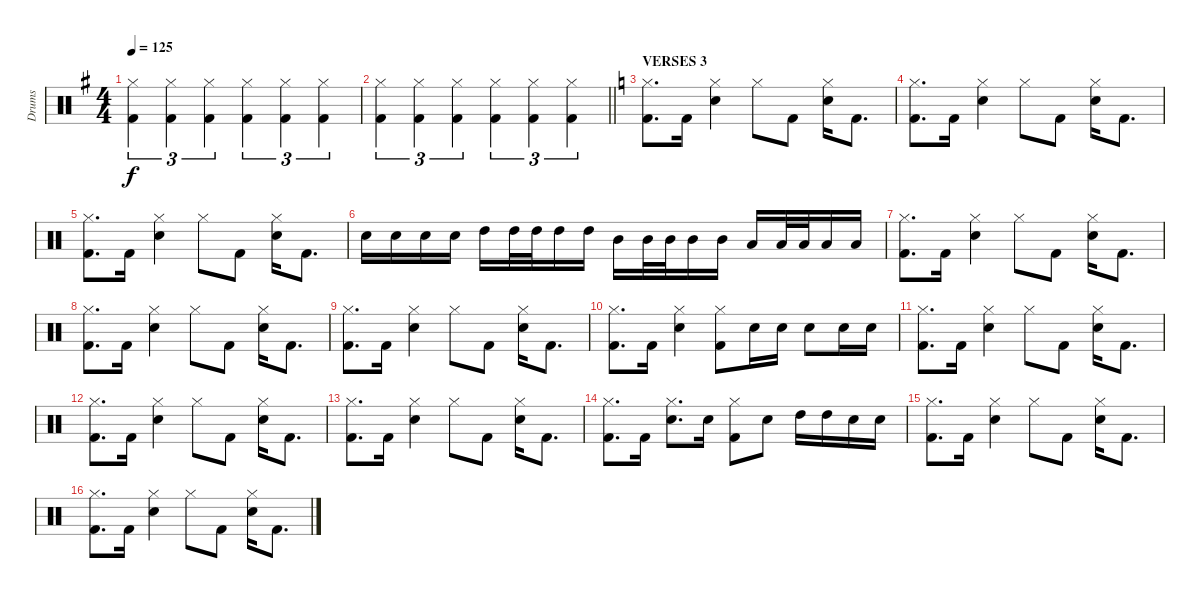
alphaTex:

\track ("Drums" "Drums") {instrument percussion}
\staff {score}
\articulation defaults
\ts (4 4)
\tempo 125
\clef neutral
\ks eminor
("Hi-Hat (closed)" "Kick (hit) 2").4{tu (3 2) dy f} ("Hi-Hat (closed)" "Kick (hit) 2").4{tu (3 2)} ("Hi-Hat (closed)" "Kick (hit) 2").4{tu (3 2)} ("Hi-Hat (closed)" "Kick (hit) 2").4{tu (3 2)} ("Hi-Hat (closed)" "Kick (hit) 2").4{tu (3 2)} ("Hi-Hat (closed)" "Kick (hit) 2").4{tu (3 2)} |
\barLineRight lightlight
("Hi-Hat (closed)" "Kick (hit) 2").4{tu (3 2)} ("Hi-Hat (closed)" "Kick (hit) 2").4{tu (3 2)} ("Hi-Hat (closed)" "Kick (hit) 2").4{tu (3 2)} ("Hi-Hat (closed)" "Kick (hit) 2").4{tu (3 2)} ("Hi-Hat (closed)" "Kick (hit) 2").4{tu (3 2)} ("Hi-Hat (closed)" "Kick (hit) 2").4{tu (3 2)} |
\section ("" "VERSES 3")
\ks aminor
("Hi-Hat (closed)" "Kick (hit) 2").8{d} "Kick (hit) 2".16 ("Hi-Hat (closed)" "Electric Snare (hit)").4 "Hi-Hat (closed)".8 "Kick (hit) 2".8 ("Hi-Hat (closed)" "Electric Snare (hit)").16 "Kick (hit) 2".8{d} |
("Hi-Hat (closed)" "Kick (hit) 2").8{d} "Kick (hit) 2".16 ("Hi-Hat (closed)" "Electric Snare (hit)").4 "Hi-Hat (closed)".8 "Kick (hit) 2".8 ("Hi-Hat (closed)" "Electric Snare (hit)").16 "Kick (hit) 2".8{d} |
("Hi-Hat (closed)" "Kick (hit) 2").8{d} "Kick (hit) 2".16 ("Hi-Hat (closed)" "Electric Snare (hit)").4 "Hi-Hat (closed)".8 "Kick (hit) 2".8 ("Hi-Hat (closed)" "Electric Snare (hit)").16 "Kick (hit) 2".8{d} |
"Electric Snare (hit)".16 "Electric Snare (hit)".16 "Electric Snare (hit)".16 "Electric Snare (hit)".16 "High Tom (hit)".16 "High Tom (hit)".32 "High Tom (hit)".32{beam splitsecondary} "High Tom (hit)".16 "High Tom (hit)".16 "Mid Tom (hit)".16 "Mid Tom (hit)".32 "Mid Tom (hit)".32{beam splitsecondary} "Mid Tom (hit)".16 "Mid Tom (hit)".16 "Low Tom (hit)".16 "Low Tom (hit)".32 "Low Tom (hit)".32{beam splitsecondary} "Low Tom (hit)".16 "Low Tom (hit)".16 |
("Hi-Hat (closed)" "Kick (hit) 2").8{d} "Kick (hit) 2".16 ("Hi-Hat (closed)" "Electric Snare (hit)").4 "Hi-Hat (closed)".8 "Kick (hit) 2".8 ("Hi-Hat (closed)" "Electric Snare (hit)").16 "Kick (hit) 2".8{d} |
("Hi-Hat (closed)" "Kick (hit) 2").8{d} "Kick (hit) 2".16 ("Hi-Hat (closed)" "Electric Snare (hit)").4 "Hi-Hat (closed)".8 "Kick (hit) 2".8 ("Hi-Hat (closed)" "Electric Snare (hit)").16 "Kick (hit) 2".8{d} |
("Hi-Hat (closed)" "Kick (hit) 2").8{d} "Kick (hit) 2".16 ("Hi-Hat (closed)" "Electric Snare (hit)").4 "Hi-Hat (closed)".8 "Kick (hit) 2".8 ("Hi-Hat (closed)" "Electric Snare (hit)").16 "Kick (hit) 2".8{d} |
("Hi-Hat (closed)" "Kick (hit) 2").8{d} "Kick (hit) 2".16 ("Hi-Hat (closed)" "Electric Snare (hit)").4 ("Hi-Hat (closed)" "Kick (hit) 2").8 "Electric Snare (hit)".16 "Electric Snare (hit)".16 "Electric Snare (hit)".8 "Electric Snare (hit)".16 "Electric Snare (hit)".16 |
("Hi-Hat (closed)" "Kick (hit) 2").8{d} "Kick (hit) 2".16 ("Hi-Hat (closed)" "Electric Snare (hit)").4 "Hi-Hat (closed)".8 "Kick (hit) 2".8 ("Hi-Hat (closed)" "Electric Snare (hit)").16 "Kick (hit) 2".8{d} |
("Hi-Hat (closed)" "Kick (hit) 2").8{d} "Kick (hit) 2".16 ("Hi-Hat (closed)" "Electric Snare (hit)").4 "Hi-Hat (closed)".8 "Kick (hit) 2".8 ("Hi-Hat (closed)" "Electric Snare (hit)").16 "Kick (hit) 2".8{d} |
("Hi-Hat (closed)" "Kick (hit) 2").8{d} "Kick (hit) 2".16 ("Hi-Hat (closed)" "Electric Snare (hit)").4 "Hi-Hat (closed)".8 "Kick (hit) 2".8 ("Hi-Hat (closed)" "Electric Snare (hit)").16 "Kick (hit) 2".8{d} |
("Hi-Hat (closed)" "Kick (hit) 2").8{d} "Kick (hit) 2".16 ("Hi-Hat (closed)" "Electric Snare (hit)").8{d} "Electric Snare (hit)".16 ("Hi-Hat (closed)" "Kick (hit) 2").8 "Electric Snare (hit)".8 "High Tom (hit)".16 "High Tom (hit)".16 "Electric Snare (hit)".16 "Electric Snare (hit)".16 |
("Hi-Hat (closed)" "Kick (hit) 2").8{d} "Kick (hit) 2".16 ("Hi-Hat (closed)" "Electric Snare (hit)").4 "Hi-Hat (closed)".8 "Kick (hit) 2".8 ("Hi-Hat (closed)" "Electric Snare (hit)").16 "Kick (hit) 2".8{d} |
("Hi-Hat (closed)" "Kick (hit) 2").8{d} "Kick (hit) 2".16 ("Hi-Hat (closed)" "Electric Snare (hit)").4 "Hi-Hat (closed)".8 "Kick (hit) 2".8 ("Hi-Hat (closed)" "Electric Snare (hit)").16 "Kick (hit) 2".8{d}
